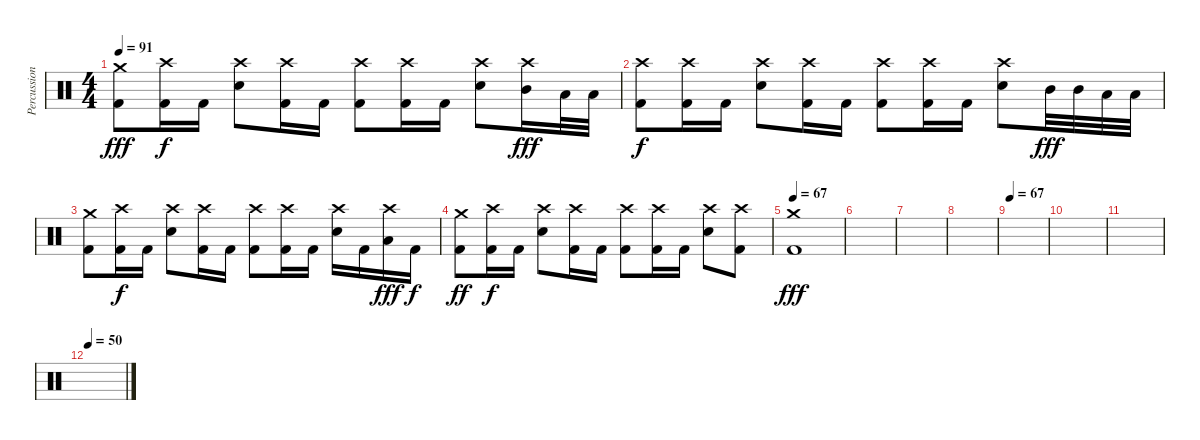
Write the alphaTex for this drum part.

\track ("Percussion" "Percussion") {instrument percussion}
\staff {score}
\articulation defaults
\ts (4 4)
\tempo 91
\clef neutral
\ks c
("Crash medium (hit)" "Kick (hit) 2").8{dy fff} ("Crash high (hit)" "Kick (hit) 2").16{dy f} "Kick (hit) 2".16 ("Crash high (hit)" "Electric Snare (hit)").8 ("Crash high (hit)" "Kick (hit) 2").16 "Kick (hit) 2".16 ("Crash high (hit)" "Kick (hit) 2").8 ("Crash high (hit)" "Kick (hit) 2").16 "Kick (hit) 2".16 ("Crash high (hit)" "Electric Snare (hit)").8 ("Crash high (hit)" "Mid Tom (hit)").16{dy fff} "Low Tom (hit)".32 "Low Tom (hit)".32 |
("Crash high (hit)" "Kick (hit) 2").8{dy f} ("Crash high (hit)" "Kick (hit) 2").16 "Kick (hit) 2".16 ("Crash high (hit)" "Electric Snare (hit)").8 ("Crash high (hit)" "Kick (hit) 2").16 "Kick (hit) 2".16 ("Crash high (hit)" "Kick (hit) 2").8 ("Crash high (hit)" "Kick (hit) 2").16 "Kick (hit) 2".16 ("Crash high (hit)" "Electric Snare (hit)").8 "Mid Tom (hit)".32{dy fff} "Mid Tom (hit)".32 "Low Tom (hit)".32 "Low Tom (hit)".32 |
("Crash medium (hit)" "Kick (hit) 2").8 ("Crash high (hit)" "Kick (hit) 2").16{dy f} "Kick (hit) 2".16 ("Crash high (hit)" "Electric Snare (hit)").8 ("Crash high (hit)" "Kick (hit) 2").16 "Kick (hit) 2".16 ("Crash high (hit)" "Kick (hit) 2").8 ("Crash high (hit)" "Kick (hit) 2").16 "Kick (hit) 2".16 ("Crash high (hit)" "Electric Snare (hit)").16 "Kick (hit) 2".16 ("Crash high (hit)" "Low Tom (hit)").16{dy fff} "Kick (hit) 2".16{dy f} |
("Crash medium (hit)" "Kick (hit) 2").8{dy ff} ("Crash high (hit)" "Kick (hit) 2").16{dy f} "Kick (hit) 2".16 ("Crash high (hit)" "Electric Snare (hit)").8 ("Crash high (hit)" "Kick (hit) 2").16 "Kick (hit) 2".16 ("Crash high (hit)" "Kick (hit) 2").8 ("Crash high (hit)" "Kick (hit) 2").16 "Kick (hit) 2".16 ("Crash high (hit)" "Electric Snare (hit)").8 ("Crash high (hit)" "Kick (hit) 2").8 |
\tempo 67
("Crash medium (hit)" "Kick (hit) 2").1{dy fff} |
|
|
|
\tempo 67
|
|
|
\tempo 50
